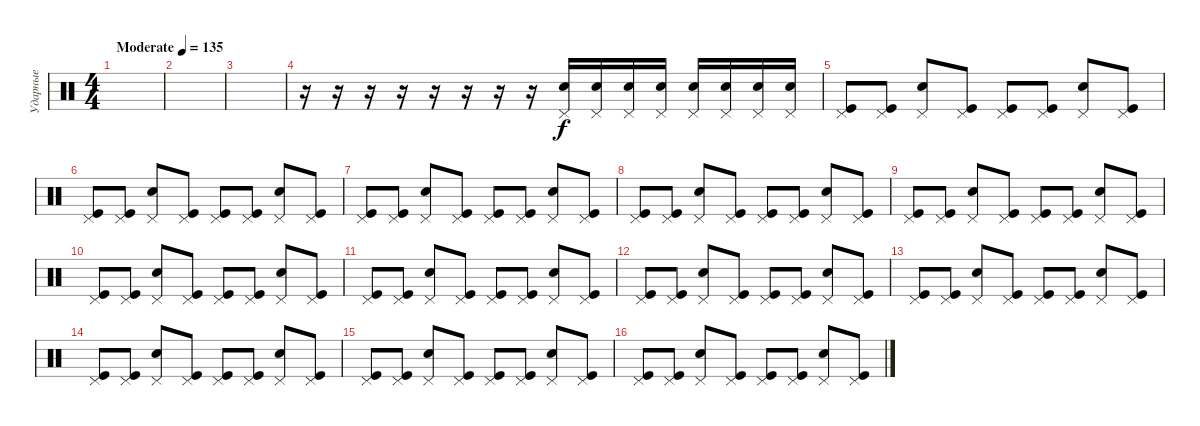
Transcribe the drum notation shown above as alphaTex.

\track ("Ударные" "Ударные") {instrument percussion}
\staff {score}
\articulation defaults
\ts (4 4)
\tempo (135 "Moderate")
\clef neutral
\ks c
|
|
|
r.16 r.16 r.16 r.16 r.16 r.16 r.16 r.16 ("Electric Snare (hit)" "Pedal Hi-Hat (hit)").16 ("Electric Snare (hit)" "Pedal Hi-Hat (hit)").16 ("Electric Snare (hit)" "Pedal Hi-Hat (hit)").16 ("Electric Snare (hit)" "Pedal Hi-Hat (hit)").16 ("Electric Snare (hit)" "Pedal Hi-Hat (hit)").16 ("Electric Snare (hit)" "Pedal Hi-Hat (hit)").16 ("Electric Snare (hit)" "Pedal Hi-Hat (hit)").16 ("Electric Snare (hit)" "Pedal Hi-Hat (hit)").16 |
("Pedal Hi-Hat (hit)" "Kick (hit)").8 ("Pedal Hi-Hat (hit)" "Kick (hit)").8 ("Pedal Hi-Hat (hit)" "Electric Snare (hit)").8 ("Pedal Hi-Hat (hit)" "Kick (hit)").8 ("Pedal Hi-Hat (hit)" "Kick (hit)").8 ("Pedal Hi-Hat (hit)" "Kick (hit)").8 ("Pedal Hi-Hat (hit)" "Electric Snare (hit)").8 ("Pedal Hi-Hat (hit)" "Kick (hit)").8 |
("Pedal Hi-Hat (hit)" "Kick (hit)").8 ("Pedal Hi-Hat (hit)" "Kick (hit)").8 ("Pedal Hi-Hat (hit)" "Electric Snare (hit)").8 ("Pedal Hi-Hat (hit)" "Kick (hit)").8 ("Pedal Hi-Hat (hit)" "Kick (hit)").8 ("Pedal Hi-Hat (hit)" "Kick (hit)").8 ("Pedal Hi-Hat (hit)" "Electric Snare (hit)").8 ("Pedal Hi-Hat (hit)" "Kick (hit)").8 |
("Pedal Hi-Hat (hit)" "Kick (hit)").8 ("Pedal Hi-Hat (hit)" "Kick (hit)").8 ("Pedal Hi-Hat (hit)" "Electric Snare (hit)").8 ("Pedal Hi-Hat (hit)" "Kick (hit)").8 ("Pedal Hi-Hat (hit)" "Kick (hit)").8 ("Pedal Hi-Hat (hit)" "Kick (hit)").8 ("Pedal Hi-Hat (hit)" "Electric Snare (hit)").8 ("Pedal Hi-Hat (hit)" "Kick (hit)").8 |
("Pedal Hi-Hat (hit)" "Kick (hit)").8 ("Pedal Hi-Hat (hit)" "Kick (hit)").8 ("Pedal Hi-Hat (hit)" "Electric Snare (hit)").8 ("Pedal Hi-Hat (hit)" "Kick (hit)").8 ("Pedal Hi-Hat (hit)" "Kick (hit)").8 ("Pedal Hi-Hat (hit)" "Kick (hit)").8 ("Pedal Hi-Hat (hit)" "Electric Snare (hit)").8 ("Pedal Hi-Hat (hit)" "Kick (hit)").8 |
("Pedal Hi-Hat (hit)" "Kick (hit)").8 ("Pedal Hi-Hat (hit)" "Kick (hit)").8 ("Pedal Hi-Hat (hit)" "Electric Snare (hit)").8 ("Pedal Hi-Hat (hit)" "Kick (hit)").8 ("Pedal Hi-Hat (hit)" "Kick (hit)").8 ("Pedal Hi-Hat (hit)" "Kick (hit)").8 ("Pedal Hi-Hat (hit)" "Electric Snare (hit)").8 ("Pedal Hi-Hat (hit)" "Kick (hit)").8 |
("Pedal Hi-Hat (hit)" "Kick (hit)").8 ("Pedal Hi-Hat (hit)" "Kick (hit)").8 ("Pedal Hi-Hat (hit)" "Electric Snare (hit)").8 ("Pedal Hi-Hat (hit)" "Kick (hit)").8 ("Pedal Hi-Hat (hit)" "Kick (hit)").8 ("Pedal Hi-Hat (hit)" "Kick (hit)").8 ("Pedal Hi-Hat (hit)" "Electric Snare (hit)").8 ("Pedal Hi-Hat (hit)" "Kick (hit)").8 |
("Pedal Hi-Hat (hit)" "Kick (hit)").8 ("Pedal Hi-Hat (hit)" "Kick (hit)").8 ("Pedal Hi-Hat (hit)" "Electric Snare (hit)").8 ("Pedal Hi-Hat (hit)" "Kick (hit)").8 ("Pedal Hi-Hat (hit)" "Kick (hit)").8 ("Pedal Hi-Hat (hit)" "Kick (hit)").8 ("Pedal Hi-Hat (hit)" "Electric Snare (hit)").8 ("Pedal Hi-Hat (hit)" "Kick (hit)").8 |
("Pedal Hi-Hat (hit)" "Kick (hit)").8 ("Pedal Hi-Hat (hit)" "Kick (hit)").8 ("Pedal Hi-Hat (hit)" "Electric Snare (hit)").8 ("Pedal Hi-Hat (hit)" "Kick (hit)").8 ("Pedal Hi-Hat (hit)" "Kick (hit)").8 ("Pedal Hi-Hat (hit)" "Kick (hit)").8 ("Pedal Hi-Hat (hit)" "Electric Snare (hit)").8 ("Pedal Hi-Hat (hit)" "Kick (hit)").8 |
("Pedal Hi-Hat (hit)" "Kick (hit)").8 ("Pedal Hi-Hat (hit)" "Kick (hit)").8 ("Pedal Hi-Hat (hit)" "Electric Snare (hit)").8 ("Pedal Hi-Hat (hit)" "Kick (hit)").8 ("Pedal Hi-Hat (hit)" "Kick (hit)").8 ("Pedal Hi-Hat (hit)" "Kick (hit)").8 ("Pedal Hi-Hat (hit)" "Electric Snare (hit)").8 ("Pedal Hi-Hat (hit)" "Kick (hit)").8 |
("Pedal Hi-Hat (hit)" "Kick (hit)").8 ("Pedal Hi-Hat (hit)" "Kick (hit)").8 ("Pedal Hi-Hat (hit)" "Electric Snare (hit)").8 ("Pedal Hi-Hat (hit)" "Kick (hit)").8 ("Pedal Hi-Hat (hit)" "Kick (hit)").8 ("Pedal Hi-Hat (hit)" "Kick (hit)").8 ("Pedal Hi-Hat (hit)" "Electric Snare (hit)").8 ("Pedal Hi-Hat (hit)" "Kick (hit)").8 |
("Pedal Hi-Hat (hit)" "Kick (hit)").8 ("Pedal Hi-Hat (hit)" "Kick (hit)").8 ("Pedal Hi-Hat (hit)" "Electric Snare (hit)").8 ("Pedal Hi-Hat (hit)" "Kick (hit)").8 ("Pedal Hi-Hat (hit)" "Kick (hit)").8 ("Pedal Hi-Hat (hit)" "Kick (hit)").8 ("Pedal Hi-Hat (hit)" "Electric Snare (hit)").8 ("Pedal Hi-Hat (hit)" "Kick (hit)").8 |
("Pedal Hi-Hat (hit)" "Kick (hit)").8 ("Pedal Hi-Hat (hit)" "Kick (hit)").8 ("Pedal Hi-Hat (hit)" "Electric Snare (hit)").8 ("Pedal Hi-Hat (hit)" "Kick (hit)").8 ("Pedal Hi-Hat (hit)" "Kick (hit)").8 ("Pedal Hi-Hat (hit)" "Kick (hit)").8 ("Pedal Hi-Hat (hit)" "Electric Snare (hit)").8 ("Pedal Hi-Hat (hit)" "Kick (hit)").8
